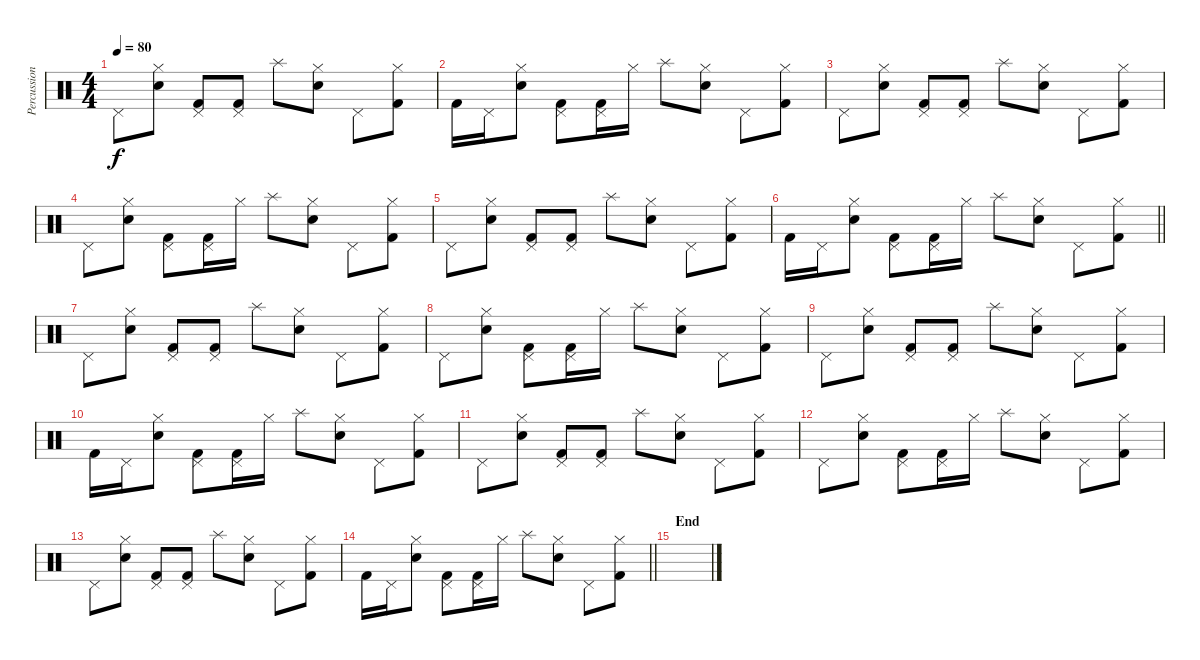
\track ("Percussion" "Percussion") {instrument percussion}
\staff {score}
\articulation defaults
\ts (4 4)
\tempo 80
\clef neutral
\ks c "Pedal Hi-Hat (hit)".8{dy f}
("Hi-Hat (closed)" "Electric Snare (hit)").8 ("Pedal Hi-Hat (hit)" "Kick (hit) 2").8 ("Pedal Hi-Hat (hit)" "Kick (hit) 2").8 "Splash (hit)".8 ("Hi-Hat (closed)" "Electric Snare (hit)").8 "Pedal Hi-Hat (hit)".8 ("Hi-Hat (closed)" "Kick (hit) 2").8 |
"Kick (hit) 2".16 "Pedal Hi-Hat (hit)".16 ("Hi-Hat (closed)" "Electric Snare (hit)").8 ("Pedal Hi-Hat (hit)" "Kick (hit) 2").8 ("Pedal Hi-Hat (hit)" "Kick (hit) 2").16 "Hi-Hat (closed)".16 "Splash (hit)".8 ("Hi-Hat (closed)" "Electric Snare (hit)").8 "Pedal Hi-Hat (hit)".8 ("Hi-Hat (closed)" "Kick (hit) 2").8 |
"Pedal Hi-Hat (hit)".8 ("Hi-Hat (closed)" "Electric Snare (hit)").8 ("Pedal Hi-Hat (hit)" "Kick (hit) 2").8 ("Pedal Hi-Hat (hit)" "Kick (hit) 2").8 "Splash (hit)".8 ("Hi-Hat (closed)" "Electric Snare (hit)").8 "Pedal Hi-Hat (hit)".8 ("Hi-Hat (closed)" "Kick (hit) 2").8 |
"Pedal Hi-Hat (hit)".8 ("Hi-Hat (closed)" "Electric Snare (hit)").8 ("Pedal Hi-Hat (hit)" "Kick (hit) 2").8 ("Pedal Hi-Hat (hit)" "Kick (hit) 2").16 "Hi-Hat (closed)".16 "Splash (hit)".8 ("Hi-Hat (closed)" "Electric Snare (hit)").8 "Pedal Hi-Hat (hit)".8 ("Hi-Hat (closed)" "Kick (hit) 2").8 |
"Pedal Hi-Hat (hit)".8 ("Hi-Hat (closed)" "Electric Snare (hit)").8 ("Pedal Hi-Hat (hit)" "Kick (hit) 2").8 ("Pedal Hi-Hat (hit)" "Kick (hit) 2").8 "Splash (hit)".8 ("Hi-Hat (closed)" "Electric Snare (hit)").8 "Pedal Hi-Hat (hit)".8 ("Hi-Hat (closed)" "Kick (hit) 2").8 |
\barLineRight lightlight "Kick (hit) 2".16 "Pedal Hi-Hat (hit)".16
("Hi-Hat (closed)" "Electric Snare (hit)").8 ("Pedal Hi-Hat (hit)" "Kick (hit) 2").8 ("Pedal Hi-Hat (hit)" "Kick (hit) 2").16 "Hi-Hat (closed)".16 "Splash (hit)".8 ("Hi-Hat (closed)" "Electric Snare (hit)").8 "Pedal Hi-Hat (hit)".8 ("Hi-Hat (closed)" "Kick (hit) 2").8 |
"Pedal Hi-Hat (hit)".8 ("Hi-Hat (closed)" "Electric Snare (hit)").8 ("Pedal Hi-Hat (hit)" "Kick (hit) 2").8 ("Pedal Hi-Hat (hit)" "Kick (hit) 2").8 "Splash (hit)".8 ("Hi-Hat (closed)" "Electric Snare (hit)").8 "Pedal Hi-Hat (hit)".8 ("Hi-Hat (closed)" "Kick (hit) 2").8 |
"Pedal Hi-Hat (hit)".8 ("Hi-Hat (closed)" "Electric Snare (hit)").8 ("Pedal Hi-Hat (hit)" "Kick (hit) 2").8 ("Pedal Hi-Hat (hit)" "Kick (hit) 2").16 "Hi-Hat (closed)".16 "Splash (hit)".8 ("Hi-Hat (closed)" "Electric Snare (hit)").8 "Pedal Hi-Hat (hit)".8 ("Hi-Hat (closed)" "Kick (hit) 2").8 |
"Pedal Hi-Hat (hit)".8 ("Hi-Hat (closed)" "Electric Snare (hit)").8 ("Pedal Hi-Hat (hit)" "Kick (hit) 2").8 ("Pedal Hi-Hat (hit)" "Kick (hit) 2").8 "Splash (hit)".8 ("Hi-Hat (closed)" "Electric Snare (hit)").8 "Pedal Hi-Hat (hit)".8 ("Hi-Hat (closed)" "Kick (hit) 2").8 |
"Kick (hit) 2".16 "Pedal Hi-Hat (hit)".16 ("Hi-Hat (closed)" "Electric Snare (hit)").8 ("Pedal Hi-Hat (hit)" "Kick (hit) 2").8 ("Pedal Hi-Hat (hit)" "Kick (hit) 2").16 "Hi-Hat (closed)".16 "Splash (hit)".8 ("Hi-Hat (closed)" "Electric Snare (hit)").8 "Pedal Hi-Hat (hit)".8 ("Hi-Hat (closed)" "Kick (hit) 2").8 |
"Pedal Hi-Hat (hit)".8 ("Hi-Hat (closed)" "Electric Snare (hit)").8 ("Pedal Hi-Hat (hit)" "Kick (hit) 2").8 ("Pedal Hi-Hat (hit)" "Kick (hit) 2").8 "Splash (hit)".8 ("Hi-Hat (closed)" "Electric Snare (hit)").8 "Pedal Hi-Hat (hit)".8 ("Hi-Hat (closed)" "Kick (hit) 2").8 |
"Pedal Hi-Hat (hit)".8 ("Hi-Hat (closed)" "Electric Snare (hit)").8 ("Pedal Hi-Hat (hit)" "Kick (hit) 2").8 ("Pedal Hi-Hat (hit)" "Kick (hit) 2").16 "Hi-Hat (closed)".16 "Splash (hit)".8 ("Hi-Hat (closed)" "Electric Snare (hit)").8 "Pedal Hi-Hat (hit)".8 ("Hi-Hat (closed)" "Kick (hit) 2").8 |
"Pedal Hi-Hat (hit)".8 ("Hi-Hat (closed)" "Electric Snare (hit)").8 ("Pedal Hi-Hat (hit)" "Kick (hit) 2").8 ("Pedal Hi-Hat (hit)" "Kick (hit) 2").8 "Splash (hit)".8 ("Hi-Hat (closed)" "Electric Snare (hit)").8 "Pedal Hi-Hat (hit)".8 ("Hi-Hat (closed)" "Kick (hit) 2").8 |
\barLineRight lightlight "Kick (hit) 2".16 "Pedal Hi-Hat (hit)".16
("Hi-Hat (closed)" "Electric Snare (hit)").8 ("Pedal Hi-Hat (hit)" "Kick (hit) 2").8 ("Pedal Hi-Hat (hit)" "Kick (hit) 2").16 "Hi-Hat (closed)".16 "Splash (hit)".8 ("Hi-Hat (closed)" "Electric Snare (hit)").8 "Pedal Hi-Hat (hit)".8 ("Hi-Hat (closed)" "Kick (hit) 2").8 |
\section ("" "End")
